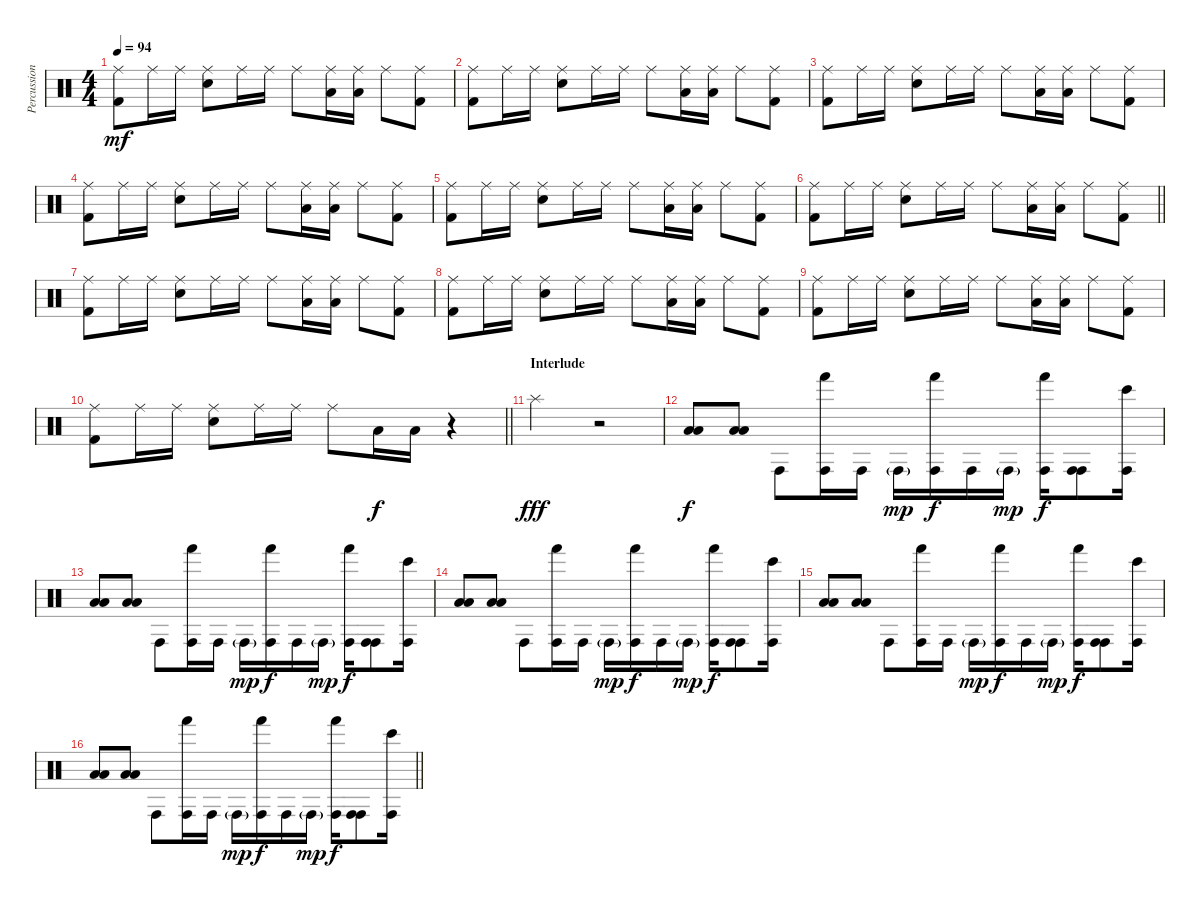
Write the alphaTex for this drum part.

\track ("Percussions" "Percussion") {instrument percussion}
\staff {score}
\articulation defaults
\ts (4 4)
\tempo 94
\clef neutral
\ks c
("Kick (hit) 2" "Ride (middle)").8{dy mf} "Ride (middle)".16 "Ride (middle)".16 ("Electric Snare (hit)" "Ride (middle)").8 "Ride (middle)".16 "Ride (middle)".16 "Ride (middle)".8 ("Low Tom (hit)" "Ride (middle)").16 ("Low Floor Tom (hit)" "Ride (middle)").16 "Ride (middle)".8 ("Kick (hit) 2" "Ride (middle)").8 |
("Kick (hit) 2" "Ride (middle)").8 "Ride (middle)".16 "Ride (middle)".16 ("Electric Snare (hit)" "Ride (middle)").8 "Ride (middle)".16 "Ride (middle)".16 "Ride (middle)".8 ("Low Tom (hit)" "Ride (middle)").16 ("Low Floor Tom (hit)" "Ride (middle)").16 "Ride (middle)".8 ("Kick (hit) 2" "Ride (middle)").8 |
("Kick (hit) 2" "Ride (middle)").8 "Ride (middle)".16 "Ride (middle)".16 ("Electric Snare (hit)" "Ride (middle)").8 "Ride (middle)".16 "Ride (middle)".16 "Ride (middle)".8 ("Low Tom (hit)" "Ride (middle)").16 ("Low Floor Tom (hit)" "Ride (middle)").16 "Ride (middle)".8 ("Kick (hit) 2" "Ride (middle)").8 |
("Kick (hit) 2" "Ride (middle)").8 "Ride (middle)".16 "Ride (middle)".16 ("Electric Snare (hit)" "Ride (middle)").8 "Ride (middle)".16 "Ride (middle)".16 "Ride (middle)".8 ("Low Tom (hit)" "Ride (middle)").16 ("Low Floor Tom (hit)" "Ride (middle)").16 "Ride (middle)".8 ("Kick (hit) 2" "Ride (middle)").8 |
("Kick (hit) 2" "Ride (middle)").8 "Ride (middle)".16 "Ride (middle)".16 ("Electric Snare (hit)" "Ride (middle)").8 "Ride (middle)".16 "Ride (middle)".16 "Ride (middle)".8 ("Low Tom (hit)" "Ride (middle)").16 ("Low Floor Tom (hit)" "Ride (middle)").16 "Ride (middle)".8 ("Kick (hit) 2" "Ride (middle)").8 |
\barLineRight lightlight
("Kick (hit) 2" "Ride (middle)").8 "Ride (middle)".16 "Ride (middle)".16 ("Electric Snare (hit)" "Ride (middle)").8 "Ride (middle)".16 "Ride (middle)".16 "Ride (middle)".8 ("Low Tom (hit)" "Ride (middle)").16 ("Low Floor Tom (hit)" "Ride (middle)").16 "Ride (middle)".8 ("Kick (hit) 2" "Ride (middle)").8 |
\section ("" "")
("Kick (hit) 2" "Ride (middle)").8 "Ride (middle)".16 "Ride (middle)".16 ("Electric Snare (hit)" "Ride (middle)").8 "Ride (middle)".16 "Ride (middle)".16 "Ride (middle)".8 ("Low Tom (hit)" "Ride (middle)").16 ("Low Floor Tom (hit)" "Ride (middle)").16 "Ride (middle)".8 ("Kick (hit) 2" "Ride (middle)").8 |
("Kick (hit) 2" "Ride (middle)").8 "Ride (middle)".16 "Ride (middle)".16 ("Electric Snare (hit)" "Ride (middle)").8 "Ride (middle)".16 "Ride (middle)".16 "Ride (middle)".8 ("Low Tom (hit)" "Ride (middle)").16 ("Low Floor Tom (hit)" "Ride (middle)").16 "Ride (middle)".8 ("Kick (hit) 2" "Ride (middle)").8 |
("Kick (hit) 2" "Ride (middle)").8 "Ride (middle)".16 "Ride (middle)".16 ("Electric Snare (hit)" "Ride (middle)").8 "Ride (middle)".16 "Ride (middle)".16 "Ride (middle)".8 ("Low Tom (hit)" "Ride (middle)").16 ("Low Floor Tom (hit)" "Ride (middle)").16 "Ride (middle)".8 ("Kick (hit) 2" "Ride (middle)").8 |
\barLineRight lightlight
("Kick (hit) 2" "Ride (middle)").8 "Ride (middle)".16 "Ride (middle)".16 ("Electric Snare (hit)" "Ride (middle)").8 "Ride (middle)".16 "Ride (middle)".16 "Ride (middle)".8 "Low Tom (hit)".16{dy f} "Low Floor Tom (hit)".16 r.4 |
\section ("" "Interlude")
"Splash (hit)".2{dy fff} r.2{volume 0} |
("Low Floor Tom (hit)" "Low Floor Tom (hit)").8{dy f volume 13} ("Low Floor Tom (hit)" "Low Floor Tom (hit)").8 "Conga high (hit)".8 ("Hand (hit)" "Conga high (hit)").16 "Conga high (hit)".16 "Conga high (hit)"{g}.16{dy mp} ("Hand (hit)" "Conga high (hit)").16{dy f} "Conga high (hit)".16 "Conga high (hit)"{g}.16{dy mp} ("Hand (hit)" "Conga high (hit)").16{dy f} ("Conga high (hit)" "Conga high (hit)").8 ("Bongo High (hit)" "Conga high (hit)").16 |
("Low Floor Tom (hit)" "Low Floor Tom (hit)").8 ("Low Floor Tom (hit)" "Low Floor Tom (hit)").8 "Conga high (hit)".8 ("Hand (hit)" "Conga high (hit)").16 "Conga high (hit)".16 "Conga high (hit)"{g}.16{dy mp} ("Hand (hit)" "Conga high (hit)").16{dy f} "Conga high (hit)".16 "Conga high (hit)"{g}.16{dy mp} ("Hand (hit)" "Conga high (hit)").16{dy f} ("Conga high (hit)" "Conga high (hit)").8 ("Bongo High (hit)" "Conga high (hit)").16 |
("Low Floor Tom (hit)" "Low Floor Tom (hit)").8 ("Low Floor Tom (hit)" "Low Floor Tom (hit)").8 "Conga high (hit)".8 ("Hand (hit)" "Conga high (hit)").16 "Conga high (hit)".16 "Conga high (hit)"{g}.16{dy mp} ("Hand (hit)" "Conga high (hit)").16{dy f} "Conga high (hit)".16 "Conga high (hit)"{g}.16{dy mp} ("Hand (hit)" "Conga high (hit)").16{dy f} ("Conga high (hit)" "Conga high (hit)").8 ("Bongo High (hit)" "Conga high (hit)").16 |
("Low Floor Tom (hit)" "Low Floor Tom (hit)").8 ("Low Floor Tom (hit)" "Low Floor Tom (hit)").8 "Conga high (hit)".8 ("Hand (hit)" "Conga high (hit)").16 "Conga high (hit)".16 "Conga high (hit)"{g}.16{dy mp} ("Hand (hit)" "Conga high (hit)").16{dy f} "Conga high (hit)".16 "Conga high (hit)"{g}.16{dy mp} ("Hand (hit)" "Conga high (hit)").16{dy f} ("Conga high (hit)" "Conga high (hit)").8 ("Bongo High (hit)" "Conga high (hit)").16 |
\barLineRight lightlight
("Low Floor Tom (hit)" "Low Floor Tom (hit)").8 ("Low Floor Tom (hit)" "Low Floor Tom (hit)").8 "Conga high (hit)".8 ("Hand (hit)" "Conga high (hit)").16 "Conga high (hit)".16 "Conga high (hit)"{g}.16{dy mp} ("Hand (hit)" "Conga high (hit)").16{dy f} "Conga high (hit)".16 "Conga high (hit)"{g}.16{dy mp} ("Hand (hit)" "Conga high (hit)").16{dy f} ("Conga high (hit)" "Conga high (hit)").8 ("Bongo High (hit)" "Conga high (hit)").16
